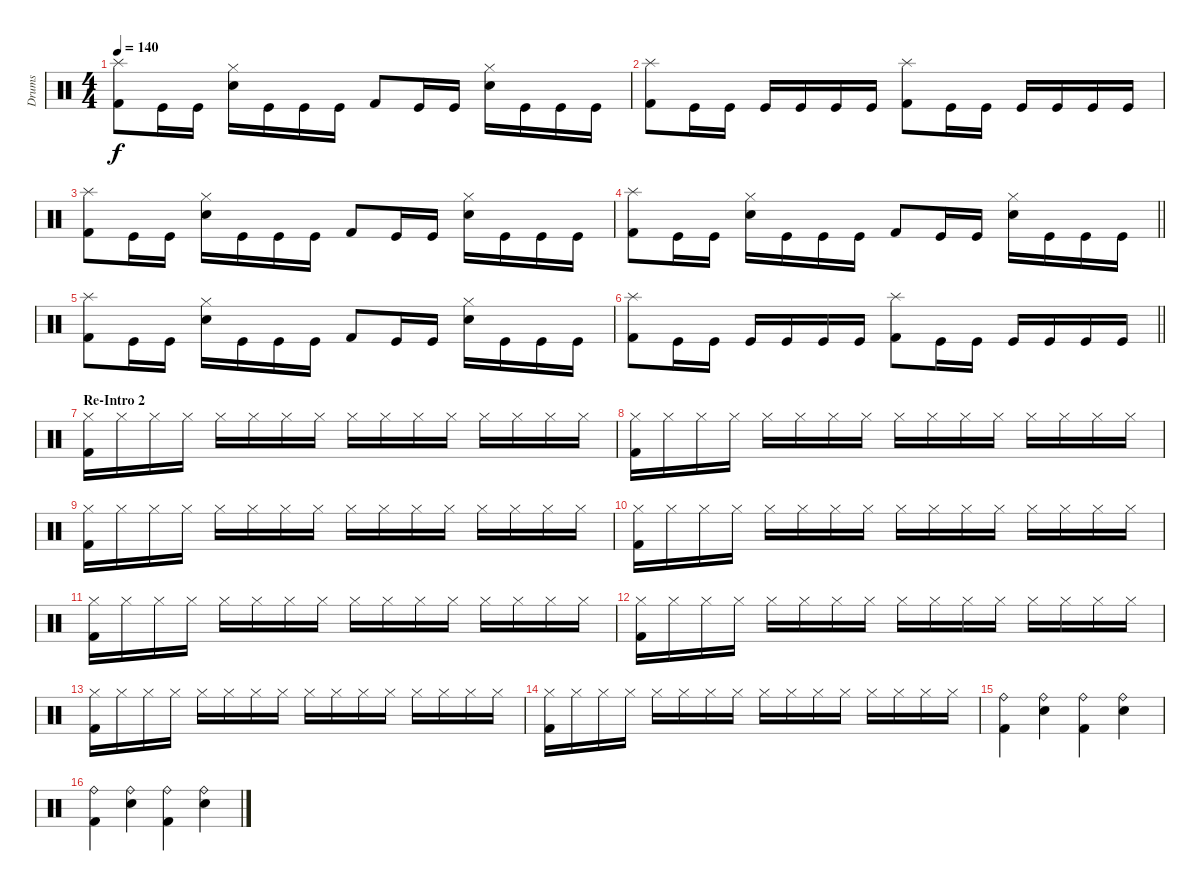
\track ("Drums" "Drums") {instrument percussion}
\staff {score}
\articulation defaults
\ts (4 4)
\tempo 140
\clef neutral
\ks c
("Splash (hit)" "Kick (hit) 2").8{dy f} "Kick (hit)".16 "Kick (hit)".16 ("Snare (hit) 2" "Hi-Hat (closed)").16 "Kick (hit)".16 "Kick (hit)".16 "Kick (hit)".16 "Kick (hit) 2".8 "Kick (hit)".16 "Kick (hit)".16 ("Snare (hit) 2" "Hi-Hat (closed)").16 "Kick (hit)".16 "Kick (hit)".16 "Kick (hit)".16 |
("Splash (hit)" "Kick (hit) 2").8 "Kick (hit)".16 "Kick (hit)".16 "Kick (hit)".16 "Kick (hit)".16 "Kick (hit)".16 "Kick (hit)".16 ("Splash (hit)" "Kick (hit) 2").8 "Kick (hit)".16 "Kick (hit)".16 "Kick (hit)".16 "Kick (hit)".16 "Kick (hit)".16 "Kick (hit)".16 |
("Splash (hit)" "Kick (hit) 2").8 "Kick (hit)".16 "Kick (hit)".16 ("Snare (hit) 2" "Hi-Hat (closed)").16 "Kick (hit)".16 "Kick (hit)".16 "Kick (hit)".16 "Kick (hit) 2".8 "Kick (hit)".16 "Kick (hit)".16 ("Snare (hit) 2" "Hi-Hat (closed)").16 "Kick (hit)".16 "Kick (hit)".16 "Kick (hit)".16 |
\barLineRight lightlight
("Splash (hit)" "Kick (hit) 2").8 "Kick (hit)".16 "Kick (hit)".16 ("Snare (hit) 2" "Hi-Hat (closed)").16 "Kick (hit)".16 "Kick (hit)".16 "Kick (hit)".16 "Kick (hit) 2".8 "Kick (hit)".16 "Kick (hit)".16 ("Snare (hit) 2" "Hi-Hat (closed)").16 "Kick (hit)".16 "Kick (hit)".16 "Kick (hit)".16 |
("Splash (hit)" "Kick (hit) 2").8 "Kick (hit)".16 "Kick (hit)".16 ("Snare (hit) 2" "Hi-Hat (closed)").16 "Kick (hit)".16 "Kick (hit)".16 "Kick (hit)".16 "Kick (hit) 2".8 "Kick (hit)".16 "Kick (hit)".16 ("Snare (hit) 2" "Hi-Hat (closed)").16 "Kick (hit)".16 "Kick (hit)".16 "Kick (hit)".16 |
\barLineRight lightlight
("Splash (hit)" "Kick (hit) 2").8 "Kick (hit)".16 "Kick (hit)".16 "Kick (hit)".16 "Kick (hit)".16 "Kick (hit)".16 "Kick (hit)".16 ("Splash (hit)" "Kick (hit) 2").8 "Kick (hit)".16 "Kick (hit)".16 "Kick (hit)".16 "Kick (hit)".16 "Kick (hit)".16 "Kick (hit)".16 |
\section ("" "Re-Intro 2")
("Hi-Hat (closed)" "Kick (hit) 2").16 "Hi-Hat (closed)".16 "Hi-Hat (closed)".16 "Hi-Hat (closed)".16 "Hi-Hat (closed)".16 "Hi-Hat (closed)".16 "Hi-Hat (closed)".16 "Hi-Hat (closed)".16 "Hi-Hat (closed)".16 "Hi-Hat (closed)".16 "Hi-Hat (closed)".16 "Hi-Hat (closed)".16 "Hi-Hat (closed)".16 "Hi-Hat (closed)".16 "Hi-Hat (closed)".16 "Hi-Hat (closed)".16 |
("Hi-Hat (closed)" "Kick (hit) 2").16 "Hi-Hat (closed)".16 "Hi-Hat (closed)".16 "Hi-Hat (closed)".16 "Hi-Hat (closed)".16 "Hi-Hat (closed)".16 "Hi-Hat (closed)".16 "Hi-Hat (closed)".16 "Hi-Hat (closed)".16 "Hi-Hat (closed)".16 "Hi-Hat (closed)".16 "Hi-Hat (closed)".16 "Hi-Hat (closed)".16 "Hi-Hat (closed)".16 "Hi-Hat (closed)".16 "Hi-Hat (closed)".16 |
("Hi-Hat (closed)" "Kick (hit) 2").16 "Hi-Hat (closed)".16 "Hi-Hat (closed)".16 "Hi-Hat (closed)".16 "Hi-Hat (closed)".16 "Hi-Hat (closed)".16 "Hi-Hat (closed)".16 "Hi-Hat (closed)".16 "Hi-Hat (closed)".16 "Hi-Hat (closed)".16 "Hi-Hat (closed)".16 "Hi-Hat (closed)".16 "Hi-Hat (closed)".16 "Hi-Hat (closed)".16 "Hi-Hat (closed)".16 "Hi-Hat (closed)".16 |
("Hi-Hat (closed)" "Kick (hit) 2").16 "Hi-Hat (closed)".16 "Hi-Hat (closed)".16 "Hi-Hat (closed)".16 "Hi-Hat (closed)".16 "Hi-Hat (closed)".16 "Hi-Hat (closed)".16 "Hi-Hat (closed)".16 "Hi-Hat (closed)".16 "Hi-Hat (closed)".16 "Hi-Hat (closed)".16 "Hi-Hat (closed)".16 "Hi-Hat (closed)".16 "Hi-Hat (closed)".16 "Hi-Hat (closed)".16 "Hi-Hat (closed)".16 |
("Hi-Hat (closed)" "Kick (hit) 2").16 "Hi-Hat (closed)".16 "Hi-Hat (closed)".16 "Hi-Hat (closed)".16 "Hi-Hat (closed)".16 "Hi-Hat (closed)".16 "Hi-Hat (closed)".16 "Hi-Hat (closed)".16 "Hi-Hat (closed)".16 "Hi-Hat (closed)".16 "Hi-Hat (closed)".16 "Hi-Hat (closed)".16 "Hi-Hat (closed)".16 "Hi-Hat (closed)".16 "Hi-Hat (closed)".16 "Hi-Hat (closed)".16 |
("Hi-Hat (closed)" "Kick (hit) 2").16 "Hi-Hat (closed)".16 "Hi-Hat (closed)".16 "Hi-Hat (closed)".16 "Hi-Hat (closed)".16 "Hi-Hat (closed)".16 "Hi-Hat (closed)".16 "Hi-Hat (closed)".16 "Hi-Hat (closed)".16 "Hi-Hat (closed)".16 "Hi-Hat (closed)".16 "Hi-Hat (closed)".16 "Hi-Hat (closed)".16 "Hi-Hat (closed)".16 "Hi-Hat (closed)".16 "Hi-Hat (closed)".16 |
("Hi-Hat (closed)" "Kick (hit) 2").16 "Hi-Hat (closed)".16 "Hi-Hat (closed)".16 "Hi-Hat (closed)".16 "Hi-Hat (closed)".16 "Hi-Hat (closed)".16 "Hi-Hat (closed)".16 "Hi-Hat (closed)".16 "Hi-Hat (closed)".16 "Hi-Hat (closed)".16 "Hi-Hat (closed)".16 "Hi-Hat (closed)".16 "Hi-Hat (closed)".16 "Hi-Hat (closed)".16 "Hi-Hat (closed)".16 "Hi-Hat (closed)".16 |
("Hi-Hat (closed)" "Kick (hit) 2").16 "Hi-Hat (closed)".16 "Hi-Hat (closed)".16 "Hi-Hat (closed)".16 "Hi-Hat (closed)".16 "Hi-Hat (closed)".16 "Hi-Hat (closed)".16 "Hi-Hat (closed)".16 "Hi-Hat (closed)".16 "Hi-Hat (closed)".16 "Hi-Hat (closed)".16 "Hi-Hat (closed)".16 "Hi-Hat (closed)".16 "Hi-Hat (closed)".16 "Hi-Hat (closed)".16 "Hi-Hat (closed)".16 |
("Ride (bell)" "Kick (hit) 2").4 ("Ride (bell)" "Snare (hit) 2").4 ("Ride (bell)" "Kick (hit) 2").4 ("Ride (bell)" "Snare (hit) 2").4 |
("Ride (bell)" "Kick (hit) 2").4 ("Ride (bell)" "Snare (hit) 2").4 ("Ride (bell)" "Kick (hit) 2").4 ("Ride (bell)" "Snare (hit) 2").4
